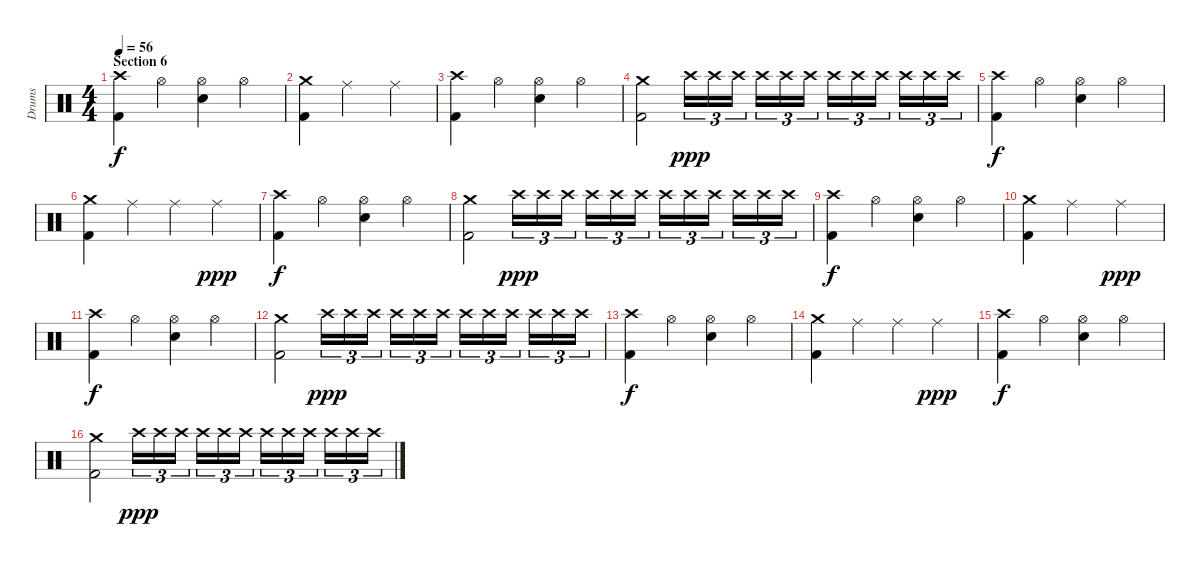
\track ("Drums" "Drums") {instrument percussion}
\staff {score}
\articulation defaults
\ts (4 4)
\section ("" "Section 6")
\tempo 56
\clef neutral
\ks c
("Crash high (hit)" "Kick (hit) 2").4{dy f} "Hi-Hat (open)".4 ("Hi-Hat (open)" "Electric Snare (hit)").4 "Hi-Hat (open)".4 |
("Crash medium (hit)" "Kick (hit) 2").4 "Ride (middle)".2 "Ride (middle)".4 |
("Crash high (hit)" "Kick (hit) 2").4 "Hi-Hat (open)".4 ("Hi-Hat (open)" "Electric Snare (hit)").4 "Hi-Hat (open)".4 |
("Crash medium (hit)" "Kick (hit) 2").2 "Crash high (hit)".16{tu (3 2) dy ppp} "Crash high (hit)".16{tu (3 2)} "Crash high (hit)".16{tu (3 2) beam splitsecondary} "Crash high (hit)".16{tu (3 2)} "Crash high (hit)".16{tu (3 2)} "Crash high (hit)".16{tu (3 2)} "Crash high (hit)".16{tu (3 2)} "Crash high (hit)".16{tu (3 2)} "Crash high (hit)".16{tu (3 2) beam splitsecondary} "Crash high (hit)".16{tu (3 2)} "Crash high (hit)".16{tu (3 2)} "Crash high (hit)".16{tu (3 2)} |
("Crash high (hit)" "Kick (hit) 2").4{dy f} "Hi-Hat (open)".4 ("Hi-Hat (open)" "Electric Snare (hit)").4 "Hi-Hat (open)".4 |
("Crash medium (hit)" "Kick (hit) 2").4 "Ride (middle)".4 "Ride (middle)".4 "Ride (middle)".4{dy ppp} |
("Crash high (hit)" "Kick (hit) 2").4{dy f} "Hi-Hat (open)".4 ("Hi-Hat (open)" "Electric Snare (hit)").4 "Hi-Hat (open)".4 |
("Crash medium (hit)" "Kick (hit) 2").2 "Crash high (hit)".16{tu (3 2) dy ppp} "Crash high (hit)".16{tu (3 2)} "Crash high (hit)".16{tu (3 2) beam splitsecondary} "Crash high (hit)".16{tu (3 2)} "Crash high (hit)".16{tu (3 2)} "Crash high (hit)".16{tu (3 2)} "Crash high (hit)".16{tu (3 2)} "Crash high (hit)".16{tu (3 2)} "Crash high (hit)".16{tu (3 2) beam splitsecondary} "Crash high (hit)".16{tu (3 2)} "Crash high (hit)".16{tu (3 2)} "Crash high (hit)".16{tu (3 2)} |
("Crash high (hit)" "Kick (hit) 2").4{dy f} "Hi-Hat (open)".4 ("Hi-Hat (open)" "Electric Snare (hit)").4 "Hi-Hat (open)".4 |
("Crash medium (hit)" "Kick (hit) 2").4 "Ride (middle)".2 "Ride (middle)".4{dy ppp} |
("Crash high (hit)" "Kick (hit) 2").4{dy f volume 8} "Hi-Hat (open)".4 ("Hi-Hat (open)" "Electric Snare (hit)").4 "Hi-Hat (open)".4 |
("Crash medium (hit)" "Kick (hit) 2").2 "Crash high (hit)".16{tu (3 2) dy ppp} "Crash high (hit)".16{tu (3 2)} "Crash high (hit)".16{tu (3 2) beam splitsecondary} "Crash high (hit)".16{tu (3 2)} "Crash high (hit)".16{tu (3 2)} "Crash high (hit)".16{tu (3 2)} "Crash high (hit)".16{tu (3 2)} "Crash high (hit)".16{tu (3 2)} "Crash high (hit)".16{tu (3 2) beam splitsecondary} "Crash high (hit)".16{tu (3 2)} "Crash high (hit)".16{tu (3 2)} "Crash high (hit)".16{tu (3 2)} |
("Crash high (hit)" "Kick (hit) 2").4{dy f} "Hi-Hat (open)".4 ("Hi-Hat (open)" "Electric Snare (hit)").4 "Hi-Hat (open)".4 |
("Crash medium (hit)" "Kick (hit) 2").4 "Ride (middle)".4 "Ride (middle)".4 "Ride (middle)".4{dy ppp} |
("Crash high (hit)" "Kick (hit) 2").4{dy f volume 6} "Hi-Hat (open)".4 ("Hi-Hat (open)" "Electric Snare (hit)").4 "Hi-Hat (open)".4 |
("Crash medium (hit)" "Kick (hit) 2").2 "Crash high (hit)".16{tu (3 2) dy ppp} "Crash high (hit)".16{tu (3 2)} "Crash high (hit)".16{tu (3 2) beam splitsecondary} "Crash high (hit)".16{tu (3 2)} "Crash high (hit)".16{tu (3 2)} "Crash high (hit)".16{tu (3 2)} "Crash high (hit)".16{tu (3 2)} "Crash high (hit)".16{tu (3 2)} "Crash high (hit)".16{tu (3 2) beam splitsecondary} "Crash high (hit)".16{tu (3 2)} "Crash high (hit)".16{tu (3 2)} "Crash high (hit)".16{tu (3 2)}
